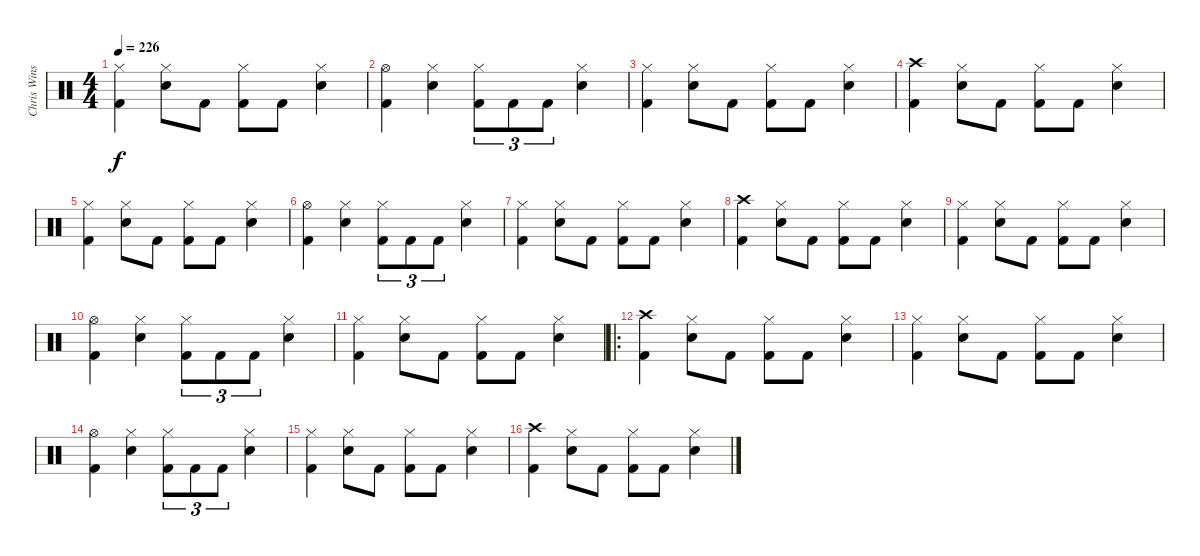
\track ("Chris Winship (Drums)" "Chris Wins") {instrument percussion}
\staff {score}
\articulation defaults
\ts (4 4)
\tempo 226
\clef neutral
\ks c
("Hi-Hat (closed)" "Kick (hit) 2").4{dy f} ("Hi-Hat (closed)" "Electric Snare (hit)").8 "Kick (hit) 2".8 ("Hi-Hat (closed)" "Kick (hit) 2").8 "Kick (hit) 2".8 ("Hi-Hat (closed)" "Electric Snare (hit)").4 |
("Hi-Hat (open)" "Kick (hit) 2").4 ("Hi-Hat (closed)" "Electric Snare (hit)").4 ("Hi-Hat (closed)" "Kick (hit) 2").8{tu (3 2)} "Kick (hit) 2".8{tu (3 2)} "Kick (hit) 2".8{tu (3 2)} ("Hi-Hat (closed)" "Electric Snare (hit)").4 |
("Hi-Hat (closed)" "Kick (hit) 2").4 ("Hi-Hat (closed)" "Electric Snare (hit)").8 "Kick (hit) 2".8 ("Hi-Hat (closed)" "Kick (hit) 2").8 "Kick (hit) 2".8 ("Hi-Hat (closed)" "Electric Snare (hit)").4 |
("Crash high (hit)" "Kick (hit) 2").4 ("Hi-Hat (closed)" "Electric Snare (hit)").8 "Kick (hit) 2".8 ("Hi-Hat (closed)" "Kick (hit) 2").8 "Kick (hit) 2".8 ("Hi-Hat (closed)" "Electric Snare (hit)").4 |
("Hi-Hat (closed)" "Kick (hit) 2").4 ("Hi-Hat (closed)" "Electric Snare (hit)").8 "Kick (hit) 2".8 ("Hi-Hat (closed)" "Kick (hit) 2").8 "Kick (hit) 2".8 ("Hi-Hat (closed)" "Electric Snare (hit)").4 |
("Hi-Hat (open)" "Kick (hit) 2").4 ("Hi-Hat (closed)" "Electric Snare (hit)").4 ("Hi-Hat (closed)" "Kick (hit) 2").8{tu (3 2)} "Kick (hit) 2".8{tu (3 2)} "Kick (hit) 2".8{tu (3 2)} ("Hi-Hat (closed)" "Electric Snare (hit)").4 |
("Hi-Hat (closed)" "Kick (hit) 2").4 ("Hi-Hat (closed)" "Electric Snare (hit)").8 "Kick (hit) 2".8 ("Hi-Hat (closed)" "Kick (hit) 2").8 "Kick (hit) 2".8 ("Hi-Hat (closed)" "Electric Snare (hit)").4 |
("Crash high (hit)" "Kick (hit) 2").4 ("Hi-Hat (closed)" "Electric Snare (hit)").8 "Kick (hit) 2".8 ("Hi-Hat (closed)" "Kick (hit) 2").8 "Kick (hit) 2".8 ("Hi-Hat (closed)" "Electric Snare (hit)").4 |
("Hi-Hat (closed)" "Kick (hit) 2").4 ("Hi-Hat (closed)" "Electric Snare (hit)").8 "Kick (hit) 2".8 ("Hi-Hat (closed)" "Kick (hit) 2").8 "Kick (hit) 2".8 ("Hi-Hat (closed)" "Electric Snare (hit)").4 |
("Hi-Hat (open)" "Kick (hit) 2").4 ("Hi-Hat (closed)" "Electric Snare (hit)").4 ("Hi-Hat (closed)" "Kick (hit) 2").8{tu (3 2)} "Kick (hit) 2".8{tu (3 2)} "Kick (hit) 2".8{tu (3 2)} ("Hi-Hat (closed)" "Electric Snare (hit)").4 |
("Hi-Hat (closed)" "Kick (hit) 2").4 ("Hi-Hat (closed)" "Electric Snare (hit)").8 "Kick (hit) 2".8 ("Hi-Hat (closed)" "Kick (hit) 2").8 "Kick (hit) 2".8 ("Hi-Hat (closed)" "Electric Snare (hit)").4 |
\ro
("Crash high (hit)" "Kick (hit) 2").4 ("Hi-Hat (closed)" "Electric Snare (hit)").8 "Kick (hit) 2".8 ("Hi-Hat (closed)" "Kick (hit) 2").8 "Kick (hit) 2".8 ("Hi-Hat (closed)" "Electric Snare (hit)").4 |
\section ("" "")
("Hi-Hat (closed)" "Kick (hit) 2").4 ("Hi-Hat (closed)" "Electric Snare (hit)").8 "Kick (hit) 2".8 ("Hi-Hat (closed)" "Kick (hit) 2").8 "Kick (hit) 2".8 ("Hi-Hat (closed)" "Electric Snare (hit)").4 |
("Hi-Hat (open)" "Kick (hit) 2").4 ("Hi-Hat (closed)" "Electric Snare (hit)").4 ("Hi-Hat (closed)" "Kick (hit) 2").8{tu (3 2)} "Kick (hit) 2".8{tu (3 2)} "Kick (hit) 2".8{tu (3 2)} ("Hi-Hat (closed)" "Electric Snare (hit)").4 |
("Hi-Hat (closed)" "Kick (hit) 2").4 ("Hi-Hat (closed)" "Electric Snare (hit)").8 "Kick (hit) 2".8 ("Hi-Hat (closed)" "Kick (hit) 2").8 "Kick (hit) 2".8 ("Hi-Hat (closed)" "Electric Snare (hit)").4 |
("Crash high (hit)" "Kick (hit) 2").4 ("Hi-Hat (closed)" "Electric Snare (hit)").8 "Kick (hit) 2".8 ("Hi-Hat (closed)" "Kick (hit) 2").8 "Kick (hit) 2".8 ("Hi-Hat (closed)" "Electric Snare (hit)").4
